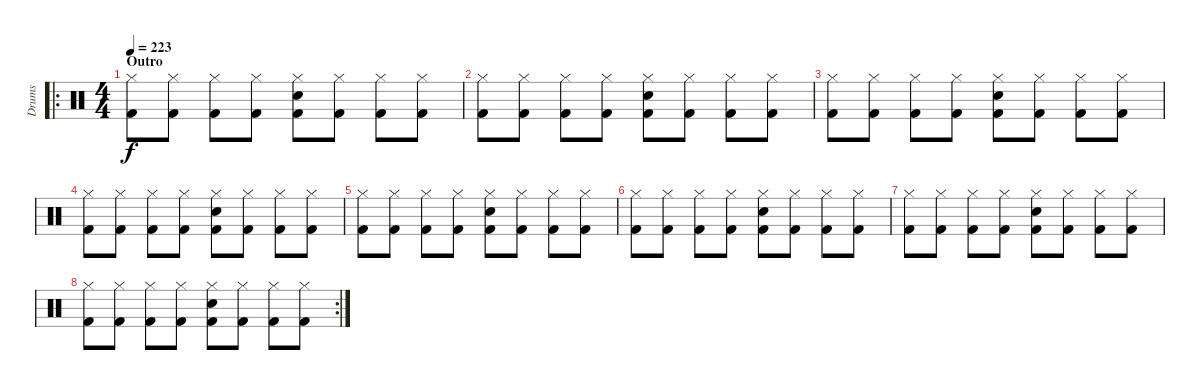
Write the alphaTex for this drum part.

\track ("Drums" "Drums") {instrument percussion}
\staff {score}
\articulation defaults
\ro
\ts (4 4)
\section ("" "Outro")
\tempo 223
\clef neutral
\ks c
("Hi-Hat (closed)" "Kick (hit) 2").8{dy f} ("Hi-Hat (closed)" "Kick (hit) 2").8 ("Hi-Hat (closed)" "Kick (hit) 2").8 ("Hi-Hat (closed)" "Kick (hit) 2").8 ("Hi-Hat (closed)" "Snare (hit) 2" "Kick (hit) 2").8 ("Hi-Hat (closed)" "Kick (hit) 2").8 ("Hi-Hat (closed)" "Kick (hit) 2").8 ("Hi-Hat (closed)" "Kick (hit) 2").8 |
("Hi-Hat (closed)" "Kick (hit) 2").8 ("Hi-Hat (closed)" "Kick (hit) 2").8 ("Hi-Hat (closed)" "Kick (hit) 2").8 ("Hi-Hat (closed)" "Kick (hit) 2").8 ("Hi-Hat (closed)" "Snare (hit) 2" "Kick (hit) 2").8 ("Hi-Hat (closed)" "Kick (hit) 2").8 ("Hi-Hat (closed)" "Kick (hit) 2").8 ("Hi-Hat (closed)" "Kick (hit) 2").8 |
("Hi-Hat (closed)" "Kick (hit) 2").8 ("Hi-Hat (closed)" "Kick (hit) 2").8 ("Hi-Hat (closed)" "Kick (hit) 2").8 ("Hi-Hat (closed)" "Kick (hit) 2").8 ("Hi-Hat (closed)" "Snare (hit) 2" "Kick (hit) 2").8 ("Hi-Hat (closed)" "Kick (hit) 2").8 ("Hi-Hat (closed)" "Kick (hit) 2").8 ("Hi-Hat (closed)" "Kick (hit) 2").8 |
("Hi-Hat (closed)" "Kick (hit) 2").8 ("Hi-Hat (closed)" "Kick (hit) 2").8 ("Hi-Hat (closed)" "Kick (hit) 2").8 ("Hi-Hat (closed)" "Kick (hit) 2").8 ("Hi-Hat (closed)" "Snare (hit) 2" "Kick (hit) 2").8 ("Hi-Hat (closed)" "Kick (hit) 2").8 ("Hi-Hat (closed)" "Kick (hit) 2").8 ("Hi-Hat (closed)" "Kick (hit) 2").8 |
("Hi-Hat (closed)" "Kick (hit) 2").8 ("Hi-Hat (closed)" "Kick (hit) 2").8 ("Hi-Hat (closed)" "Kick (hit) 2").8 ("Hi-Hat (closed)" "Kick (hit) 2").8 ("Hi-Hat (closed)" "Snare (hit) 2" "Kick (hit) 2").8 ("Hi-Hat (closed)" "Kick (hit) 2").8 ("Hi-Hat (closed)" "Kick (hit) 2").8 ("Hi-Hat (closed)" "Kick (hit) 2").8 |
("Hi-Hat (closed)" "Kick (hit) 2").8 ("Hi-Hat (closed)" "Kick (hit) 2").8 ("Hi-Hat (closed)" "Kick (hit) 2").8 ("Hi-Hat (closed)" "Kick (hit) 2").8 ("Hi-Hat (closed)" "Snare (hit) 2" "Kick (hit) 2").8 ("Hi-Hat (closed)" "Kick (hit) 2").8 ("Hi-Hat (closed)" "Kick (hit) 2").8 ("Hi-Hat (closed)" "Kick (hit) 2").8 |
("Hi-Hat (closed)" "Kick (hit) 2").8 ("Hi-Hat (closed)" "Kick (hit) 2").8 ("Hi-Hat (closed)" "Kick (hit) 2").8 ("Hi-Hat (closed)" "Kick (hit) 2").8 ("Hi-Hat (closed)" "Snare (hit) 2" "Kick (hit) 2").8 ("Hi-Hat (closed)" "Kick (hit) 2").8 ("Hi-Hat (closed)" "Kick (hit) 2").8 ("Hi-Hat (closed)" "Kick (hit) 2").8 |
\rc 2
("Hi-Hat (closed)" "Kick (hit) 2").8 ("Hi-Hat (closed)" "Kick (hit) 2").8 ("Hi-Hat (closed)" "Kick (hit) 2").8 ("Hi-Hat (closed)" "Kick (hit) 2").8 ("Hi-Hat (closed)" "Snare (hit) 2" "Kick (hit) 2").8 ("Hi-Hat (closed)" "Kick (hit) 2").8 ("Hi-Hat (closed)" "Kick (hit) 2").8 ("Hi-Hat (closed)" "Kick (hit) 2").8
